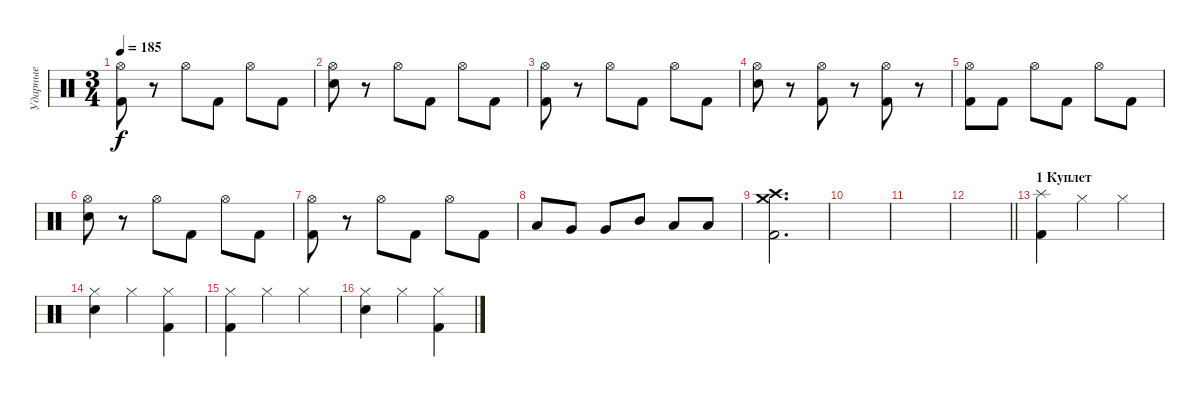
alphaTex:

\track ("Ударные" "Ударные") {instrument percussion}
\staff {score}
\articulation defaults
\ts (3 4)
\tempo 185
\clef neutral
\ks c
("Hi-Hat (open)" "Kick (hit) 2").8{dy f} r.8 "Hi-Hat (open)".8 "Kick (hit) 2".8 "Hi-Hat (open)".8 "Kick (hit) 2".8 |
("Hi-Hat (open)" "Snare (hit) 2").8 r.8 "Hi-Hat (open)".8 "Kick (hit) 2".8 "Hi-Hat (open)".8 "Kick (hit) 2".8 |
("Hi-Hat (open)" "Kick (hit) 2").8 r.8 "Hi-Hat (open)".8 "Kick (hit) 2".8 "Hi-Hat (open)".8 "Kick (hit) 2".8 |
("Hi-Hat (open)" "Snare (hit) 2").8 r.8 ("Hi-Hat (open)" "Kick (hit) 2").8 r.8 ("Hi-Hat (open)" "Kick (hit) 2").8 r.8 |
("Hi-Hat (open)" "Kick (hit) 2").8 "Kick (hit) 2".8 "Hi-Hat (open)".8 "Kick (hit) 2".8 "Hi-Hat (open)".8 "Kick (hit) 2".8 |
("Hi-Hat (open)" "Snare (hit) 2").8 r.8 "Hi-Hat (open)".8 "Kick (hit) 2".8 "Hi-Hat (open)".8 "Kick (hit) 2".8 |
("Hi-Hat (open)" "Kick (hit) 2").8 r.8 "Hi-Hat (open)".8 "Kick (hit) 2".8 "Hi-Hat (open)".8 "Kick (hit) 2".8 |
"Low Floor Tom (hit)".8 "Very Low Tom (hit)".8 "Very Low Tom (hit)".8 "Mid Tom (hit)".8 "Low Tom (hit)".8 "Low Tom (hit)".8 |
("Crash high (hit)" "Crash medium (hit)" "Kick (hit) 2").2{d} |
|
|
\barLineRight lightlight
|
\section ("" "1 Куплет")
("Splash (hit)" "Kick (hit) 2").4 "Hi-Hat (closed)".4 "Hi-Hat (closed)".4 |
("Hi-Hat (closed)" "Snare (hit) 2").4 "Hi-Hat (closed)".4 ("Hi-Hat (closed)" "Kick (hit) 2").4 |
("Hi-Hat (closed)" "Kick (hit) 2").4 "Hi-Hat (closed)".4 "Hi-Hat (closed)".4 |
("Hi-Hat (closed)" "Snare (hit) 2").4 "Hi-Hat (closed)".4 ("Hi-Hat (closed)" "Kick (hit) 2").4
